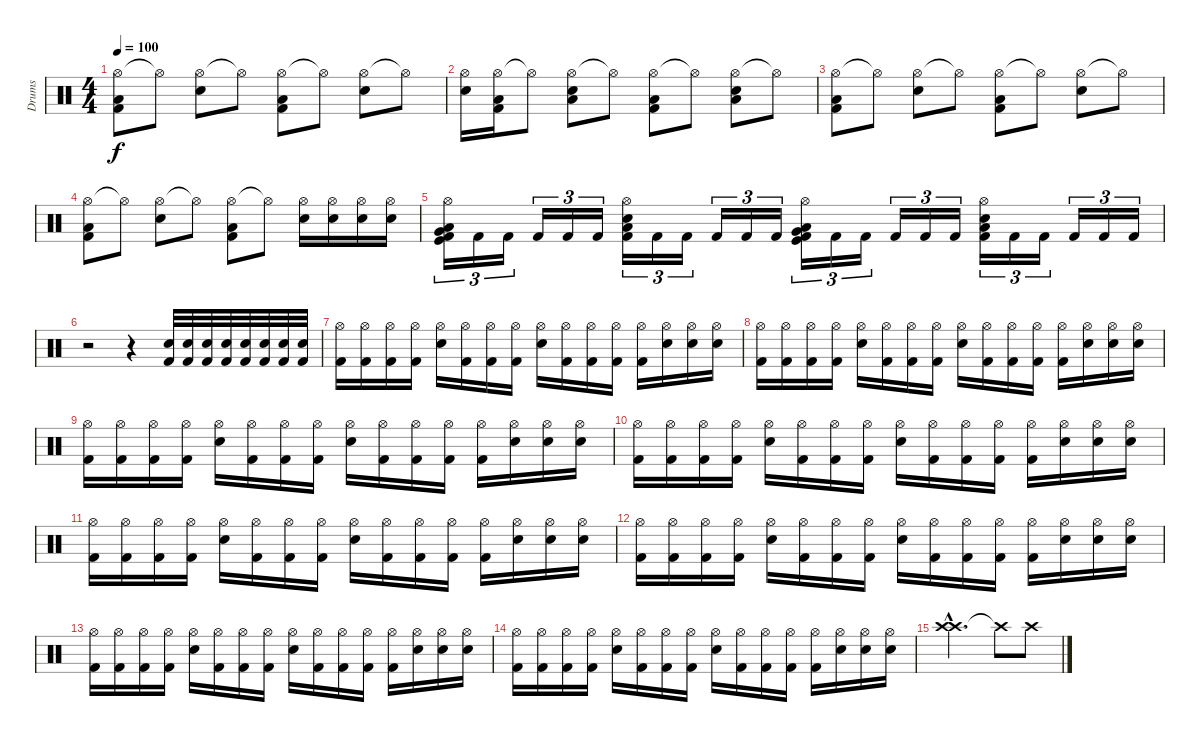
\track ("Drums" "Drums") {instrument percussion}
\staff {score}
\articulation defaults
\ts (4 4)
\tempo 100
\clef neutral
\ks c
("Hi-Hat (open)" "Low Floor Tom (hit)" "Kick (hit) 2").8{dy f} "Hi-Hat (open)"{t}.8 ("Hi-Hat (open)" "Snare (hit) 2").8 "Hi-Hat (open)"{t}.8 ("Hi-Hat (open)" "Kick (hit) 2" "Low Floor Tom (hit)").8 "Hi-Hat (open)"{t}.8 ("Hi-Hat (open)" "Snare (hit) 2").8 "Hi-Hat (open)"{t}.8 |
("Hi-Hat (open)" "Snare (hit) 2").16 ("Hi-Hat (open)" "Kick (hit) 2" "Low Floor Tom (hit)").16 "Hi-Hat (open)"{t}.8 ("Hi-Hat (open)" "Snare (hit) 2" "Low Floor Tom (hit)").8 "Hi-Hat (open)"{t}.8 ("Hi-Hat (open)" "Kick (hit) 2" "Low Floor Tom (hit)").8 "Hi-Hat (open)"{t}.8 ("Hi-Hat (open)" "Snare (hit) 2" "Low Floor Tom (hit)").8 "Hi-Hat (open)"{t}.8 |
("Hi-Hat (open)" "Low Floor Tom (hit)" "Kick (hit) 2").8 "Hi-Hat (open)"{t}.8 ("Hi-Hat (open)" "Snare (hit) 2").8 "Hi-Hat (open)"{t}.8 ("Hi-Hat (open)" "Kick (hit) 2" "Low Floor Tom (hit)").8 "Hi-Hat (open)"{t}.8 ("Hi-Hat (open)" "Snare (hit) 2").8 "Hi-Hat (open)"{t}.8 |
("Hi-Hat (open)" "Low Floor Tom (hit)" "Kick (hit) 2").8 "Hi-Hat (open)"{t}.8 ("Hi-Hat (open)" "Snare (hit) 2").8 "Hi-Hat (open)"{t}.8 ("Hi-Hat (open)" "Kick (hit) 2" "Low Floor Tom (hit)").8 "Hi-Hat (open)"{t}.8 ("Hi-Hat (open)" "Snare (hit) 2").16 ("Hi-Hat (open)" "Snare (hit) 2").16 ("Hi-Hat (open)" "Snare (hit) 2").16 ("Hi-Hat (open)" "Snare (hit) 2").16 |
("Hi-Hat (open)" "Very Low Tom (hit)" "Low Floor Tom (hit)" "Kick (hit) 2" "Kick (hit)").16{tu (3 2)} "Kick (hit) 2".16{tu (3 2)} "Kick (hit) 2".16{tu (3 2)} "Kick (hit) 2".16{tu (3 2)} "Kick (hit) 2".16{tu (3 2)} "Kick (hit) 2".16{tu (3 2)} ("Hi-Hat (open)" "Snare (hit) 2" "Low Floor Tom (hit)" "Kick (hit) 2").16{tu (3 2)} "Kick (hit) 2".16{tu (3 2)} "Kick (hit) 2".16{tu (3 2)} "Kick (hit) 2".16{tu (3 2)} "Kick (hit) 2".16{tu (3 2)} "Kick (hit) 2".16{tu (3 2)} ("Hi-Hat (open)" "Very Low Tom (hit)" "Low Floor Tom (hit)" "Kick (hit) 2" "Kick (hit)").16{tu (3 2)} "Kick (hit) 2".16{tu (3 2)} "Kick (hit) 2".16{tu (3 2)} "Kick (hit) 2".16{tu (3 2)} "Kick (hit) 2".16{tu (3 2)} "Kick (hit) 2".16{tu (3 2)} ("Hi-Hat (open)" "Snare (hit) 2" "Low Floor Tom (hit)" "Kick (hit) 2").16{tu (3 2)} "Kick (hit) 2".16{tu (3 2)} "Kick (hit) 2".16{tu (3 2)} "Kick (hit) 2".16{tu (3 2)} "Kick (hit) 2".16{tu (3 2)} "Kick (hit) 2".16{tu (3 2)} |
r.2 r.4 ("Snare (hit) 2" "Kick (hit) 2").32 ("Snare (hit) 2" "Kick (hit) 2").32 ("Snare (hit) 2" "Kick (hit) 2").32 ("Snare (hit) 2" "Kick (hit) 2").32 ("Snare (hit) 2" "Kick (hit) 2").32 ("Snare (hit) 2" "Kick (hit) 2").32 ("Snare (hit) 2" "Kick (hit) 2").32 ("Snare (hit) 2" "Kick (hit) 2").32 |
("Hi-Hat (open)" "Kick (hit) 2").16 ("Hi-Hat (open)" "Kick (hit) 2").16 ("Hi-Hat (open)" "Kick (hit) 2").16 ("Hi-Hat (open)" "Kick (hit) 2").16 ("Hi-Hat (open)" "Electric Snare (hit)").16 ("Hi-Hat (open)" "Kick (hit) 2").16 ("Hi-Hat (open)" "Kick (hit) 2").16 ("Hi-Hat (open)" "Kick (hit) 2").16 ("Hi-Hat (open)" "Electric Snare (hit)").16 ("Hi-Hat (open)" "Kick (hit) 2").16 ("Hi-Hat (open)" "Kick (hit) 2").16 ("Hi-Hat (open)" "Kick (hit) 2").16 ("Hi-Hat (open)" "Kick (hit) 2").16 ("Hi-Hat (open)" "Electric Snare (hit)").16 ("Hi-Hat (open)" "Electric Snare (hit)").16 ("Hi-Hat (open)" "Electric Snare (hit)").16 |
("Hi-Hat (open)" "Kick (hit) 2").16 ("Hi-Hat (open)" "Kick (hit) 2").16 ("Hi-Hat (open)" "Kick (hit) 2").16 ("Hi-Hat (open)" "Kick (hit) 2").16 ("Hi-Hat (open)" "Electric Snare (hit)").16 ("Hi-Hat (open)" "Kick (hit) 2").16 ("Hi-Hat (open)" "Kick (hit) 2").16 ("Hi-Hat (open)" "Kick (hit) 2").16 ("Hi-Hat (open)" "Electric Snare (hit)").16 ("Hi-Hat (open)" "Kick (hit) 2").16 ("Hi-Hat (open)" "Kick (hit) 2").16 ("Hi-Hat (open)" "Kick (hit) 2").16 ("Hi-Hat (open)" "Kick (hit) 2").16 ("Hi-Hat (open)" "Electric Snare (hit)").16 ("Hi-Hat (open)" "Electric Snare (hit)").16 ("Hi-Hat (open)" "Electric Snare (hit)").16 |
("Hi-Hat (open)" "Kick (hit) 2").16 ("Hi-Hat (open)" "Kick (hit) 2").16 ("Hi-Hat (open)" "Kick (hit) 2").16 ("Hi-Hat (open)" "Kick (hit) 2").16 ("Hi-Hat (open)" "Electric Snare (hit)").16 ("Hi-Hat (open)" "Kick (hit) 2").16 ("Hi-Hat (open)" "Kick (hit) 2").16 ("Hi-Hat (open)" "Kick (hit) 2").16 ("Hi-Hat (open)" "Electric Snare (hit)").16 ("Hi-Hat (open)" "Kick (hit) 2").16 ("Hi-Hat (open)" "Kick (hit) 2").16 ("Hi-Hat (open)" "Kick (hit) 2").16 ("Hi-Hat (open)" "Kick (hit) 2").16 ("Hi-Hat (open)" "Electric Snare (hit)").16 ("Hi-Hat (open)" "Electric Snare (hit)").16 ("Hi-Hat (open)" "Electric Snare (hit)").16 |
("Hi-Hat (open)" "Kick (hit) 2").16 ("Hi-Hat (open)" "Kick (hit) 2").16 ("Hi-Hat (open)" "Kick (hit) 2").16 ("Hi-Hat (open)" "Kick (hit) 2").16 ("Hi-Hat (open)" "Electric Snare (hit)").16 ("Hi-Hat (open)" "Kick (hit) 2").16 ("Hi-Hat (open)" "Kick (hit) 2").16 ("Hi-Hat (open)" "Kick (hit) 2").16 ("Hi-Hat (open)" "Electric Snare (hit)").16 ("Hi-Hat (open)" "Kick (hit) 2").16 ("Hi-Hat (open)" "Kick (hit) 2").16 ("Hi-Hat (open)" "Kick (hit) 2").16 ("Hi-Hat (open)" "Kick (hit) 2").16 ("Hi-Hat (open)" "Electric Snare (hit)").16 ("Hi-Hat (open)" "Electric Snare (hit)").16 ("Hi-Hat (open)" "Electric Snare (hit)").16 |
("Hi-Hat (open)" "Kick (hit) 2").16 ("Hi-Hat (open)" "Kick (hit) 2").16 ("Hi-Hat (open)" "Kick (hit) 2").16 ("Hi-Hat (open)" "Kick (hit) 2").16 ("Hi-Hat (open)" "Electric Snare (hit)").16 ("Hi-Hat (open)" "Kick (hit) 2").16 ("Hi-Hat (open)" "Kick (hit) 2").16 ("Hi-Hat (open)" "Kick (hit) 2").16 ("Hi-Hat (open)" "Electric Snare (hit)").16 ("Hi-Hat (open)" "Kick (hit) 2").16 ("Hi-Hat (open)" "Kick (hit) 2").16 ("Hi-Hat (open)" "Kick (hit) 2").16 ("Hi-Hat (open)" "Kick (hit) 2").16 ("Hi-Hat (open)" "Electric Snare (hit)").16 ("Hi-Hat (open)" "Electric Snare (hit)").16 ("Hi-Hat (open)" "Electric Snare (hit)").16 |
("Hi-Hat (open)" "Kick (hit) 2").16 ("Hi-Hat (open)" "Kick (hit) 2").16 ("Hi-Hat (open)" "Kick (hit) 2").16 ("Hi-Hat (open)" "Kick (hit) 2").16 ("Hi-Hat (open)" "Electric Snare (hit)").16 ("Hi-Hat (open)" "Kick (hit) 2").16 ("Hi-Hat (open)" "Kick (hit) 2").16 ("Hi-Hat (open)" "Kick (hit) 2").16 ("Hi-Hat (open)" "Electric Snare (hit)").16 ("Hi-Hat (open)" "Kick (hit) 2").16 ("Hi-Hat (open)" "Kick (hit) 2").16 ("Hi-Hat (open)" "Kick (hit) 2").16 ("Hi-Hat (open)" "Kick (hit) 2").16 ("Hi-Hat (open)" "Electric Snare (hit)").16 ("Hi-Hat (open)" "Electric Snare (hit)").16 ("Hi-Hat (open)" "Electric Snare (hit)").16 |
("Hi-Hat (open)" "Kick (hit) 2").16 ("Hi-Hat (open)" "Kick (hit) 2").16 ("Hi-Hat (open)" "Kick (hit) 2").16 ("Hi-Hat (open)" "Kick (hit) 2").16 ("Hi-Hat (open)" "Electric Snare (hit)").16 ("Hi-Hat (open)" "Kick (hit) 2").16 ("Hi-Hat (open)" "Kick (hit) 2").16 ("Hi-Hat (open)" "Kick (hit) 2").16 ("Hi-Hat (open)" "Electric Snare (hit)").16 ("Hi-Hat (open)" "Kick (hit) 2").16 ("Hi-Hat (open)" "Kick (hit) 2").16 ("Hi-Hat (open)" "Kick (hit) 2").16 ("Hi-Hat (open)" "Kick (hit) 2").16 ("Hi-Hat (open)" "Electric Snare (hit)").16 ("Hi-Hat (open)" "Electric Snare (hit)").16 ("Hi-Hat (open)" "Electric Snare (hit)").16 |
("Hi-Hat (open)" "Kick (hit) 2").16 ("Hi-Hat (open)" "Kick (hit) 2").16 ("Hi-Hat (open)" "Kick (hit) 2").16 ("Hi-Hat (open)" "Kick (hit) 2").16 ("Hi-Hat (open)" "Electric Snare (hit)").16 ("Hi-Hat (open)" "Kick (hit) 2").16 ("Hi-Hat (open)" "Kick (hit) 2").16 ("Hi-Hat (open)" "Kick (hit) 2").16 ("Hi-Hat (open)" "Electric Snare (hit)").16 ("Hi-Hat (open)" "Kick (hit) 2").16 ("Hi-Hat (open)" "Kick (hit) 2").16 ("Hi-Hat (open)" "Kick (hit) 2").16 ("Hi-Hat (open)" "Kick (hit) 2").16 ("Hi-Hat (open)" "Electric Snare (hit)").16 ("Hi-Hat (open)" "Electric Snare (hit)").16 ("Hi-Hat (open)" "Electric Snare (hit)").16 |
("Crash high (hit)"{hac} "Crash high (hit)"{hac}).2{d} "Crash high (hit)"{t}.8 "Crash high (hit)".8
